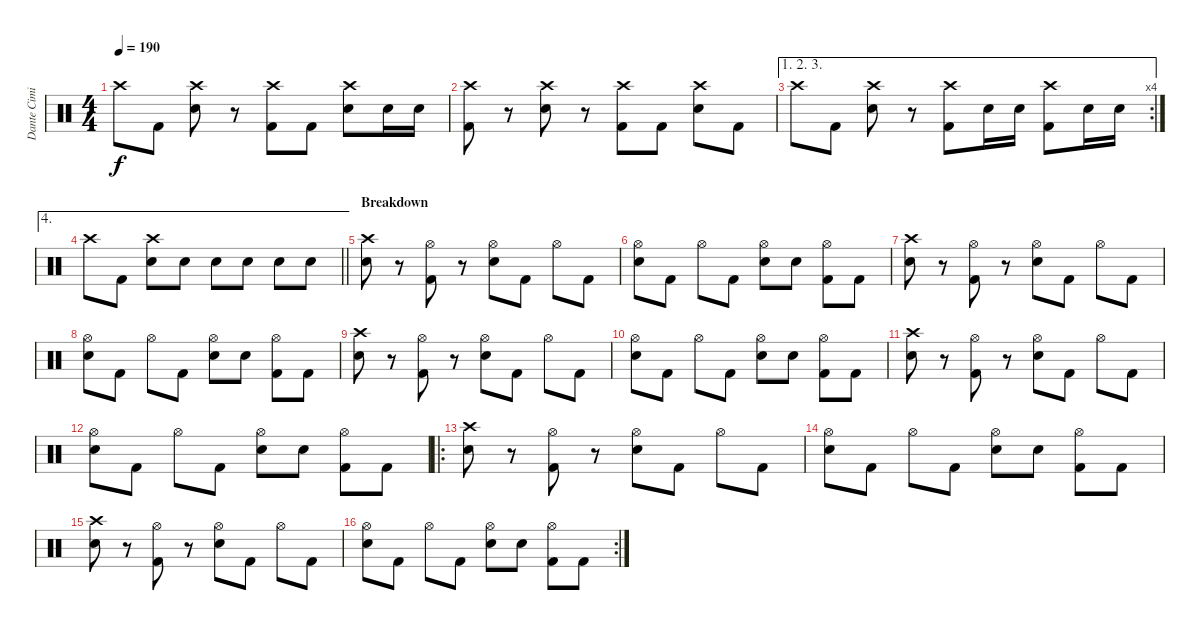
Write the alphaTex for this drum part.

\track ("Dante Cimino" "Dante Cimi") {instrument percussion}
\staff {score}
\articulation defaults
\ts (4 4)
\tempo 190
\clef neutral
\ks c "Crash high (hit)".8{dy f} "Kick (hit) 2".8
("Crash high (hit)" "Electric Snare (hit)").8 r.8 ("Crash high (hit)" "Kick (hit) 2").8 "Kick (hit) 2".8 ("Crash high (hit)" "Electric Snare (hit)").8 "Electric Snare (hit)".16 "Electric Snare (hit)".16 |
("Crash high (hit)" "Kick (hit) 2").8 r.8 ("Crash high (hit)" "Electric Snare (hit)").8 r.8 ("Crash high (hit)" "Kick (hit) 2").8 "Kick (hit) 2".8 ("Crash high (hit)" "Electric Snare (hit)").8 "Kick (hit) 2".8 |
\ae (1 2 3)
\rc 4 "Crash high (hit)".8 "Kick (hit) 2".8
("Crash high (hit)" "Electric Snare (hit)").8 r.8 ("Crash high (hit)" "Kick (hit) 2").8 "Electric Snare (hit)".16 "Electric Snare (hit)".16 ("Crash high (hit)" "Kick (hit) 2").8 "Electric Snare (hit)".16 "Electric Snare (hit)".16 |
\ae 4
\barLineRight lightlight "Crash high (hit)".8 "Kick (hit) 2".8
("Crash high (hit)" "Electric Snare (hit)").8 "Electric Snare (hit)".8 "Electric Snare (hit)".8 "Electric Snare (hit)".8 "Electric Snare (hit)".8 "Electric Snare (hit)".8 |
\section ("" "Breakdown")
("Crash high (hit)" "Electric Snare (hit)").8 r.8 ("Hi-Hat (open)" "Kick (hit) 2").8 r.8 ("Hi-Hat (open)" "Electric Snare (hit)").8 "Kick (hit) 2".8 "Hi-Hat (open)".8 "Kick (hit) 2".8 |
("Hi-Hat (open)" "Electric Snare (hit)").8 "Kick (hit) 2".8 "Hi-Hat (open)".8 "Kick (hit) 2".8 ("Hi-Hat (open)" "Electric Snare (hit)").8 "Electric Snare (hit)".8 ("Hi-Hat (open)" "Kick (hit) 2").8 "Kick (hit) 2".8 |
("Crash high (hit)" "Electric Snare (hit)").8 r.8 ("Hi-Hat (open)" "Kick (hit) 2").8 r.8 ("Hi-Hat (open)" "Electric Snare (hit)").8 "Kick (hit) 2".8 "Hi-Hat (open)".8 "Kick (hit) 2".8 |
("Hi-Hat (open)" "Electric Snare (hit)").8 "Kick (hit) 2".8 "Hi-Hat (open)".8 "Kick (hit) 2".8 ("Hi-Hat (open)" "Electric Snare (hit)").8 "Electric Snare (hit)".8 ("Hi-Hat (open)" "Kick (hit) 2").8 "Kick (hit) 2".8 |
("Crash high (hit)" "Electric Snare (hit)").8 r.8 ("Hi-Hat (open)" "Kick (hit) 2").8 r.8 ("Hi-Hat (open)" "Electric Snare (hit)").8 "Kick (hit) 2".8 "Hi-Hat (open)".8 "Kick (hit) 2".8 |
("Hi-Hat (open)" "Electric Snare (hit)").8 "Kick (hit) 2".8 "Hi-Hat (open)".8 "Kick (hit) 2".8 ("Hi-Hat (open)" "Electric Snare (hit)").8 "Electric Snare (hit)".8 ("Hi-Hat (open)" "Kick (hit) 2").8 "Kick (hit) 2".8 |
("Crash high (hit)" "Electric Snare (hit)").8 r.8 ("Hi-Hat (open)" "Kick (hit) 2").8 r.8 ("Hi-Hat (open)" "Electric Snare (hit)").8 "Kick (hit) 2".8 "Hi-Hat (open)".8 "Kick (hit) 2".8 |
("Hi-Hat (open)" "Electric Snare (hit)").8 "Kick (hit) 2".8 "Hi-Hat (open)".8 "Kick (hit) 2".8 ("Hi-Hat (open)" "Electric Snare (hit)").8 "Electric Snare (hit)".8 ("Hi-Hat (open)" "Kick (hit) 2").8 "Kick (hit) 2".8 |
\ro
("Crash high (hit)" "Electric Snare (hit)").8 r.8 ("Hi-Hat (open)" "Kick (hit) 2").8 r.8 ("Hi-Hat (open)" "Electric Snare (hit)").8 "Kick (hit) 2".8 "Hi-Hat (open)".8 "Kick (hit) 2".8 |
("Hi-Hat (open)" "Electric Snare (hit)").8 "Kick (hit) 2".8 "Hi-Hat (open)".8 "Kick (hit) 2".8 ("Hi-Hat (open)" "Electric Snare (hit)").8 "Electric Snare (hit)".8 ("Hi-Hat (open)" "Kick (hit) 2").8 "Kick (hit) 2".8 |
("Crash high (hit)" "Electric Snare (hit)").8 r.8 ("Hi-Hat (open)" "Kick (hit) 2").8 r.8 ("Hi-Hat (open)" "Electric Snare (hit)").8 "Kick (hit) 2".8 "Hi-Hat (open)".8 "Kick (hit) 2".8 |
\rc 2
("Hi-Hat (open)" "Electric Snare (hit)").8 "Kick (hit) 2".8 "Hi-Hat (open)".8 "Kick (hit) 2".8 ("Hi-Hat (open)" "Electric Snare (hit)").8 "Electric Snare (hit)".8 ("Hi-Hat (open)" "Kick (hit) 2").8 "Kick (hit) 2".8
